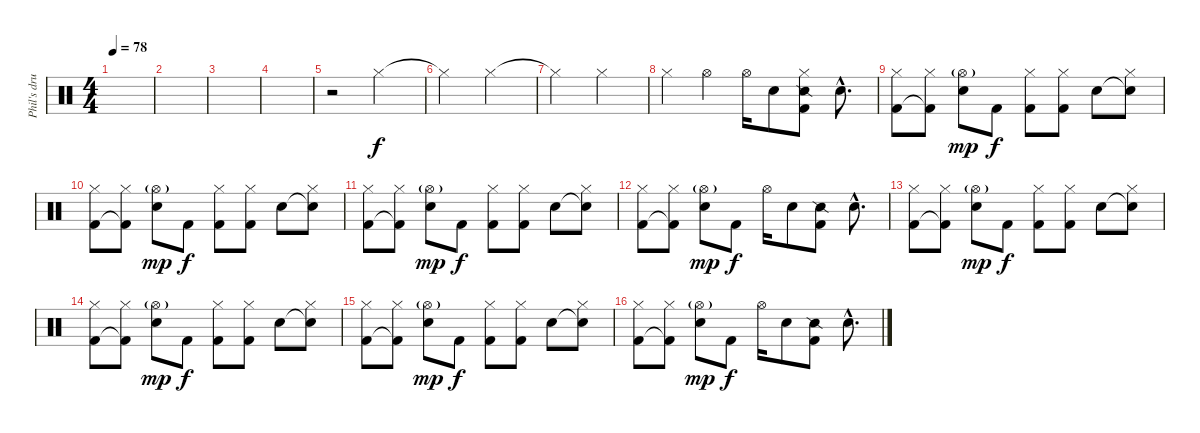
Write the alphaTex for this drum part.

\track ("Phil's drums" "Phil's dru") {instrument percussion}
\staff {score}
\articulation defaults
\ts (4 4)
\tempo 78
\clef neutral
\ks c
|
|
|
|
r.2 "Hi-Hat (closed)".2 |
"Hi-Hat (closed)"{t}.2 "Hi-Hat (closed)".2 |
"Hi-Hat (closed)"{t}.2 "Hi-Hat (closed)".2 |
"Hi-Hat (closed)".4 "Hi-Hat (open)".4 "Hi-Hat (open)".16 "Snare (hit) 2".8 ("Snare (side stick) 2" "Hi-Hat (closed)" "Kick (hit) 2").8 "Snare (hit) 2"{hac}.8{d} |
("Kick (hit) 2" "Hi-Hat (closed)").8 ("Kick (hit) 2"{t} "Hi-Hat (closed)").8 ("Snare (hit) 2" "Hi-Hat (open)"{g}).8{dy mp} "Kick (hit) 2".8{dy f} ("Kick (hit) 2" "Hi-Hat (closed)").8 ("Kick (hit) 2" "Hi-Hat (closed)").8 "Snare (hit) 2".8 ("Snare (hit) 2"{t} "Hi-Hat (closed)").8 |
("Kick (hit) 2" "Hi-Hat (closed)").8 ("Kick (hit) 2"{t} "Hi-Hat (closed)").8 ("Snare (hit) 2" "Hi-Hat (open)"{g}).8{dy mp} "Kick (hit) 2".8{dy f} ("Kick (hit) 2" "Hi-Hat (closed)").8 ("Kick (hit) 2" "Hi-Hat (closed)").8 "Snare (hit) 2".8 ("Snare (hit) 2"{t} "Hi-Hat (closed)").8 |
("Kick (hit) 2" "Hi-Hat (closed)").8 ("Kick (hit) 2"{t} "Hi-Hat (closed)").8 ("Snare (hit) 2" "Hi-Hat (open)"{g}).8{dy mp} "Kick (hit) 2".8{dy f} ("Kick (hit) 2" "Hi-Hat (closed)").8 ("Kick (hit) 2" "Hi-Hat (closed)").8 "Snare (hit) 2".8 ("Snare (hit) 2"{t} "Hi-Hat (closed)").8 |
("Kick (hit) 2" "Hi-Hat (closed)").8 ("Kick (hit) 2"{t} "Hi-Hat (closed)").8 ("Snare (hit) 2" "Hi-Hat (open)"{g}).8{dy mp} "Kick (hit) 2".8{dy f} "Hi-Hat (open)".16 "Snare (hit) 2".8 ("Snare (side stick) 2" "Kick (hit) 2").8 "Snare (hit) 2"{hac}.8{d} |
("Kick (hit) 2" "Hi-Hat (closed)").8 ("Kick (hit) 2"{t} "Hi-Hat (closed)").8 ("Snare (hit) 2" "Hi-Hat (open)"{g}).8{dy mp} "Kick (hit) 2".8{dy f} ("Kick (hit) 2" "Hi-Hat (closed)").8 ("Kick (hit) 2" "Hi-Hat (closed)").8 "Snare (hit) 2".8 ("Snare (hit) 2"{t} "Hi-Hat (closed)").8 |
("Kick (hit) 2" "Hi-Hat (closed)").8 ("Kick (hit) 2"{t} "Hi-Hat (closed)").8 ("Snare (hit) 2" "Hi-Hat (open)"{g}).8{dy mp} "Kick (hit) 2".8{dy f} ("Kick (hit) 2" "Hi-Hat (closed)").8 ("Kick (hit) 2" "Hi-Hat (closed)").8 "Snare (hit) 2".8 ("Snare (hit) 2"{t} "Hi-Hat (closed)").8 |
("Kick (hit) 2" "Hi-Hat (closed)").8 ("Kick (hit) 2"{t} "Hi-Hat (closed)").8 ("Snare (hit) 2" "Hi-Hat (open)"{g}).8{dy mp} "Kick (hit) 2".8{dy f} ("Kick (hit) 2" "Hi-Hat (closed)").8 ("Kick (hit) 2" "Hi-Hat (closed)").8 "Snare (hit) 2".8 ("Snare (hit) 2"{t} "Hi-Hat (closed)").8 |
("Kick (hit) 2" "Hi-Hat (closed)").8 ("Kick (hit) 2"{t} "Hi-Hat (closed)").8 ("Snare (hit) 2" "Hi-Hat (open)"{g}).8{dy mp} "Kick (hit) 2".8{dy f} "Hi-Hat (open)".16 "Snare (hit) 2".8 ("Snare (side stick) 2" "Kick (hit) 2").8 "Snare (hit) 2"{hac}.8{d}
